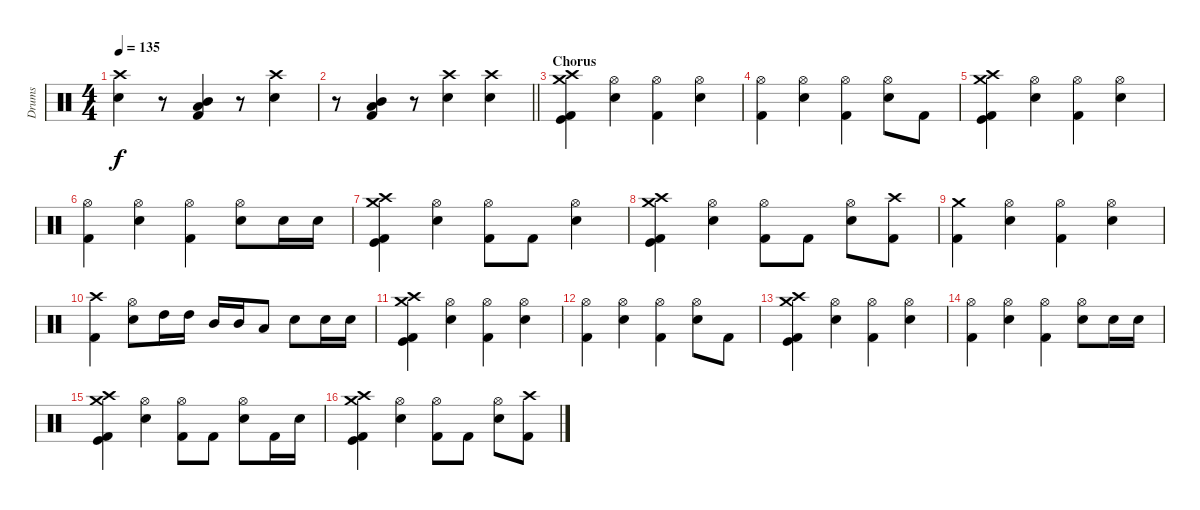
\track ("Drums" "Drums") {instrument percussion}
\staff {score}
\articulation defaults
\ts (4 4)
\tempo 135
\clef neutral
\ks c
("Crash high (hit)" "Snare (hit) 2").4{dy f} r.8 ("Kick (hit) 2" "Mid Tom (hit)" "Low Tom (hit)").4 r.8 ("Crash high (hit)" "Snare (hit) 2").4 |
\barLineRight lightlight
r.8 ("Kick (hit) 2" "Mid Tom (hit)" "Low Tom (hit)").4 r.8 ("Crash high (hit)" "Snare (hit) 2").4 ("Crash high (hit)" "Snare (hit) 2").4 |
\section ("" "Chorus")
("Crash high (hit)" "Crash medium (hit)" "Kick (hit) 2" "Kick (hit)").4 ("Hi-Hat (open)" "Snare (hit) 2").4 ("Hi-Hat (open)" "Kick (hit) 2").4 ("Hi-Hat (open)" "Snare (hit) 2").4 |
("Hi-Hat (open)" "Kick (hit) 2").4 ("Hi-Hat (open)" "Snare (hit) 2").4 ("Hi-Hat (open)" "Kick (hit) 2").4 ("Hi-Hat (open)" "Snare (hit) 2").8 "Kick (hit) 2".8 |
("Crash medium (hit)" "Crash high (hit)" "Kick (hit)" "Kick (hit) 2").4 ("Hi-Hat (open)" "Snare (hit) 2").4 ("Hi-Hat (open)" "Kick (hit) 2").4 ("Hi-Hat (open)" "Snare (hit) 2").4 |
("Hi-Hat (open)" "Kick (hit) 2").4 ("Hi-Hat (open)" "Snare (hit) 2").4 ("Hi-Hat (open)" "Kick (hit) 2").4 ("Hi-Hat (open)" "Snare (hit) 2").8 "Snare (hit) 2".16 "Snare (hit) 2".16 |
("Crash medium (hit)" "Crash high (hit)" "Kick (hit)" "Kick (hit) 2").4 ("Hi-Hat (open)" "Snare (hit) 2").4 ("Hi-Hat (open)" "Kick (hit) 2").8 "Kick (hit) 2".8 ("Hi-Hat (open)" "Snare (hit) 2").4 |
("Crash medium (hit)" "Crash high (hit)" "Kick (hit)" "Kick (hit) 2").4 ("Hi-Hat (open)" "Snare (hit) 2").4 ("Hi-Hat (open)" "Kick (hit) 2").8 "Kick (hit) 2".8 ("Hi-Hat (open)" "Snare (hit) 2").8 ("Crash high (hit)" "Kick (hit) 2").8 |
("Crash medium (hit)" "Kick (hit) 2").4 ("Hi-Hat (open)" "Snare (hit) 2").4 ("Hi-Hat (open)" "Kick (hit) 2").4 ("Hi-Hat (open)" "Snare (hit) 2").4 |
("Crash high (hit)" "Kick (hit) 2").4 ("Hi-Hat (open)" "Snare (hit) 2").8 "High Tom (hit)".16 "High Tom (hit)".16 "Mid Tom (hit)".16 "Mid Tom (hit)".16 "Low Tom (hit)".8 "Snare (hit) 2".8 "Snare (hit) 2".16 "Snare (hit) 2".16 |
("Crash high (hit)" "Crash medium (hit)" "Kick (hit) 2" "Kick (hit)").4 ("Hi-Hat (open)" "Snare (hit) 2").4 ("Hi-Hat (open)" "Kick (hit) 2").4 ("Hi-Hat (open)" "Snare (hit) 2").4 |
("Hi-Hat (open)" "Kick (hit) 2").4 ("Hi-Hat (open)" "Snare (hit) 2").4 ("Hi-Hat (open)" "Kick (hit) 2").4 ("Hi-Hat (open)" "Snare (hit) 2").8 "Kick (hit) 2".8 |
("Crash medium (hit)" "Crash high (hit)" "Kick (hit)" "Kick (hit) 2").4 ("Hi-Hat (open)" "Snare (hit) 2").4 ("Hi-Hat (open)" "Kick (hit) 2").4 ("Hi-Hat (open)" "Snare (hit) 2").4 |
("Hi-Hat (open)" "Kick (hit) 2").4 ("Hi-Hat (open)" "Snare (hit) 2").4 ("Hi-Hat (open)" "Kick (hit) 2").4 ("Hi-Hat (open)" "Snare (hit) 2").8 "Snare (hit) 2".16 "Snare (hit) 2".16 |
("Crash medium (hit)" "Crash high (hit)" "Kick (hit)" "Kick (hit) 2").4 ("Hi-Hat (open)" "Snare (hit) 2").4 ("Hi-Hat (open)" "Kick (hit) 2").8 "Kick (hit) 2".8 ("Hi-Hat (open)" "Snare (hit) 2").8 "Kick (hit) 2".16 "Snare (hit) 2".16 |
("Crash medium (hit)" "Crash high (hit)" "Kick (hit)" "Kick (hit) 2").4 ("Hi-Hat (open)" "Snare (hit) 2").4 ("Hi-Hat (open)" "Kick (hit) 2").8 "Kick (hit) 2".8 ("Hi-Hat (open)" "Snare (hit) 2").8 ("Crash high (hit)" "Kick (hit) 2").8
